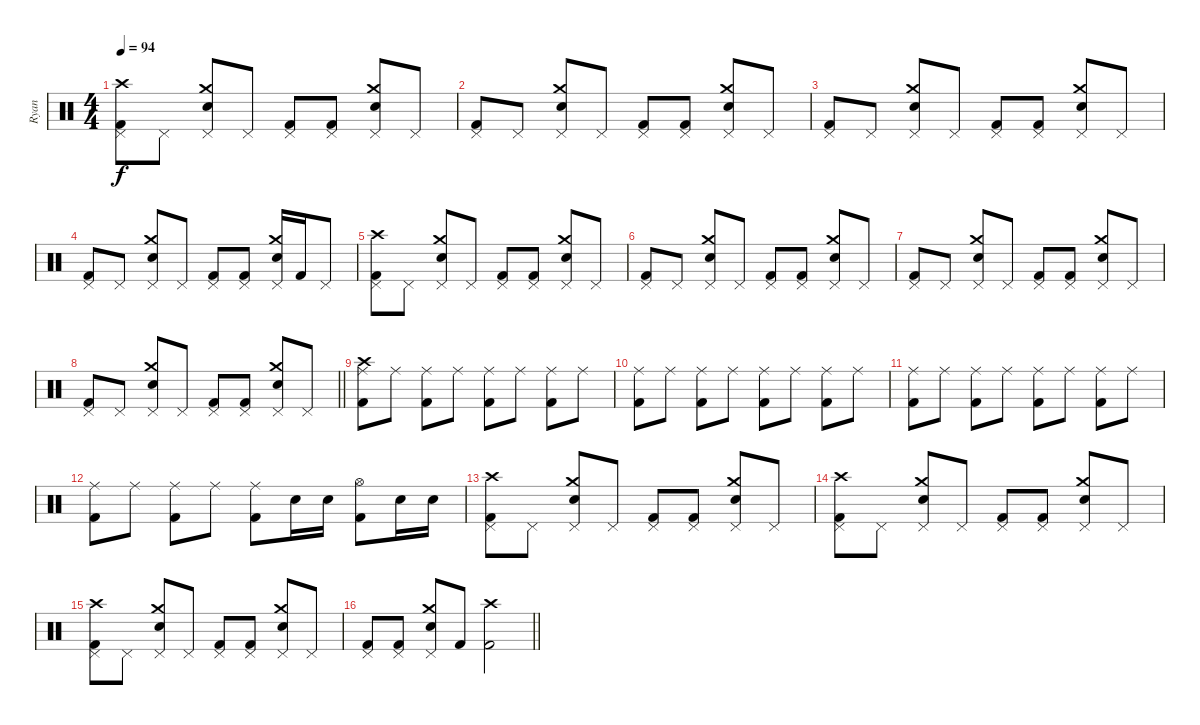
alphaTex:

\track ("Ryan" "Ryan") {instrument percussion}
\staff {score}
\articulation defaults
\ts (4 4)
\tempo 94
\clef neutral
\ks c
("Crash high (hit)" "Pedal Hi-Hat (hit)" "Kick (hit) 2").8{dy f} "Pedal Hi-Hat (hit)".8 ("Crash medium (hit)" "Pedal Hi-Hat (hit)" "Electric Snare (hit)").8 "Pedal Hi-Hat (hit)".8 ("Pedal Hi-Hat (hit)" "Kick (hit) 2").8 ("Pedal Hi-Hat (hit)" "Kick (hit) 2").8 ("Crash medium (hit)" "Pedal Hi-Hat (hit)" "Electric Snare (hit)").8 "Pedal Hi-Hat (hit)".8 |
("Pedal Hi-Hat (hit)" "Kick (hit) 2").8 "Pedal Hi-Hat (hit)".8 ("Crash medium (hit)" "Pedal Hi-Hat (hit)" "Electric Snare (hit)").8 "Pedal Hi-Hat (hit)".8 ("Pedal Hi-Hat (hit)" "Kick (hit) 2").8 ("Pedal Hi-Hat (hit)" "Kick (hit) 2").8 ("Crash medium (hit)" "Pedal Hi-Hat (hit)" "Electric Snare (hit)").8 "Pedal Hi-Hat (hit)".8 |
("Pedal Hi-Hat (hit)" "Kick (hit) 2").8 "Pedal Hi-Hat (hit)".8 ("Crash medium (hit)" "Pedal Hi-Hat (hit)" "Electric Snare (hit)").8 "Pedal Hi-Hat (hit)".8 ("Pedal Hi-Hat (hit)" "Kick (hit) 2").8 ("Pedal Hi-Hat (hit)" "Kick (hit) 2").8 ("Crash medium (hit)" "Pedal Hi-Hat (hit)" "Electric Snare (hit)").8 "Pedal Hi-Hat (hit)".8 |
("Pedal Hi-Hat (hit)" "Kick (hit) 2").8 "Pedal Hi-Hat (hit)".8 ("Crash medium (hit)" "Pedal Hi-Hat (hit)" "Electric Snare (hit)").8 "Pedal Hi-Hat (hit)".8 ("Pedal Hi-Hat (hit)" "Kick (hit) 2").8 ("Pedal Hi-Hat (hit)" "Kick (hit) 2").8 ("Crash medium (hit)" "Pedal Hi-Hat (hit)" "Electric Snare (hit)").16 "Kick (hit) 2".16 "Pedal Hi-Hat (hit)".8 |
("Crash high (hit)" "Pedal Hi-Hat (hit)" "Kick (hit) 2").8 "Pedal Hi-Hat (hit)".8 ("Crash medium (hit)" "Pedal Hi-Hat (hit)" "Electric Snare (hit)").8 "Pedal Hi-Hat (hit)".8 ("Pedal Hi-Hat (hit)" "Kick (hit) 2").8 ("Pedal Hi-Hat (hit)" "Kick (hit) 2").8 ("Crash medium (hit)" "Pedal Hi-Hat (hit)" "Electric Snare (hit)").8 "Pedal Hi-Hat (hit)".8 |
("Pedal Hi-Hat (hit)" "Kick (hit) 2").8 "Pedal Hi-Hat (hit)".8 ("Crash medium (hit)" "Pedal Hi-Hat (hit)" "Electric Snare (hit)").8 "Pedal Hi-Hat (hit)".8 ("Pedal Hi-Hat (hit)" "Kick (hit) 2").8 ("Pedal Hi-Hat (hit)" "Kick (hit) 2").8 ("Crash medium (hit)" "Pedal Hi-Hat (hit)" "Electric Snare (hit)").8 "Pedal Hi-Hat (hit)".8 |
("Pedal Hi-Hat (hit)" "Kick (hit) 2").8 "Pedal Hi-Hat (hit)".8 ("Crash medium (hit)" "Pedal Hi-Hat (hit)" "Electric Snare (hit)").8 "Pedal Hi-Hat (hit)".8 ("Pedal Hi-Hat (hit)" "Kick (hit) 2").8 ("Pedal Hi-Hat (hit)" "Kick (hit) 2").8 ("Crash medium (hit)" "Pedal Hi-Hat (hit)" "Electric Snare (hit)").8 "Pedal Hi-Hat (hit)".8 |
\barLineRight lightlight
("Pedal Hi-Hat (hit)" "Kick (hit) 2").8 "Pedal Hi-Hat (hit)".8 ("Crash medium (hit)" "Pedal Hi-Hat (hit)" "Electric Snare (hit)").8 "Pedal Hi-Hat (hit)".8 ("Pedal Hi-Hat (hit)" "Kick (hit) 2").8 ("Pedal Hi-Hat (hit)" "Kick (hit) 2").8 ("Crash medium (hit)" "Pedal Hi-Hat (hit)" "Electric Snare (hit)").8 "Pedal Hi-Hat (hit)".8 |
("Crash high (hit)" "Ride (middle)" "Kick (hit) 2").8 "Ride (middle)".8 ("Ride (middle)" "Kick (hit) 2").8 "Ride (middle)".8 ("Ride (middle)" "Kick (hit) 2").8 "Ride (middle)".8 ("Ride (middle)" "Kick (hit) 2").8 "Ride (middle)".8 |
("Ride (middle)" "Kick (hit) 2").8 "Ride (middle)".8 ("Ride (middle)" "Kick (hit) 2").8 "Ride (middle)".8 ("Ride (middle)" "Kick (hit) 2").8 "Ride (middle)".8 ("Ride (middle)" "Kick (hit) 2").8 "Ride (middle)".8 |
("Ride (middle)" "Kick (hit) 2").8 "Ride (middle)".8 ("Ride (middle)" "Kick (hit) 2").8 "Ride (middle)".8 ("Ride (middle)" "Kick (hit) 2").8 "Ride (middle)".8 ("Ride (middle)" "Kick (hit) 2").8 "Ride (middle)".8 |
("Ride (middle)" "Kick (hit) 2").8 "Ride (middle)".8 ("Ride (middle)" "Kick (hit) 2").8 "Ride (middle)".8 ("Ride (middle)" "Kick (hit) 2").8 "Electric Snare (hit)".16 "Electric Snare (hit)".16 ("Hi-Hat (open)" "Kick (hit) 2").8 "Electric Snare (hit)".16 "Electric Snare (hit)".16 |
("Crash high (hit)" "Pedal Hi-Hat (hit)" "Kick (hit) 2").8 "Pedal Hi-Hat (hit)".8 ("Crash medium (hit)" "Pedal Hi-Hat (hit)" "Electric Snare (hit)").8 "Pedal Hi-Hat (hit)".8 ("Pedal Hi-Hat (hit)" "Kick (hit) 2").8 ("Pedal Hi-Hat (hit)" "Kick (hit) 2").8 ("Crash medium (hit)" "Pedal Hi-Hat (hit)" "Electric Snare (hit)").8 "Pedal Hi-Hat (hit)".8 |
("Crash high (hit)" "Pedal Hi-Hat (hit)" "Kick (hit) 2").8 "Pedal Hi-Hat (hit)".8 ("Crash medium (hit)" "Pedal Hi-Hat (hit)" "Electric Snare (hit)").8 "Pedal Hi-Hat (hit)".8 ("Pedal Hi-Hat (hit)" "Kick (hit) 2").8 ("Pedal Hi-Hat (hit)" "Kick (hit) 2").8 ("Crash medium (hit)" "Pedal Hi-Hat (hit)" "Electric Snare (hit)").8 "Pedal Hi-Hat (hit)".8 |
("Crash high (hit)" "Pedal Hi-Hat (hit)" "Kick (hit) 2").8 "Pedal Hi-Hat (hit)".8 ("Crash medium (hit)" "Pedal Hi-Hat (hit)" "Electric Snare (hit)").8 "Pedal Hi-Hat (hit)".8 ("Pedal Hi-Hat (hit)" "Kick (hit) 2").8 ("Pedal Hi-Hat (hit)" "Kick (hit) 2").8 ("Crash medium (hit)" "Pedal Hi-Hat (hit)" "Electric Snare (hit)").8 "Pedal Hi-Hat (hit)".8 |
\barLineRight lightlight
("Pedal Hi-Hat (hit)" "Kick (hit) 2").8 ("Pedal Hi-Hat (hit)" "Kick (hit) 2").8 ("Crash medium (hit)" "Pedal Hi-Hat (hit)" "Electric Snare (hit)").8 "Kick (hit) 2".8 ("Crash high (hit)" "Kick (hit) 2").2
